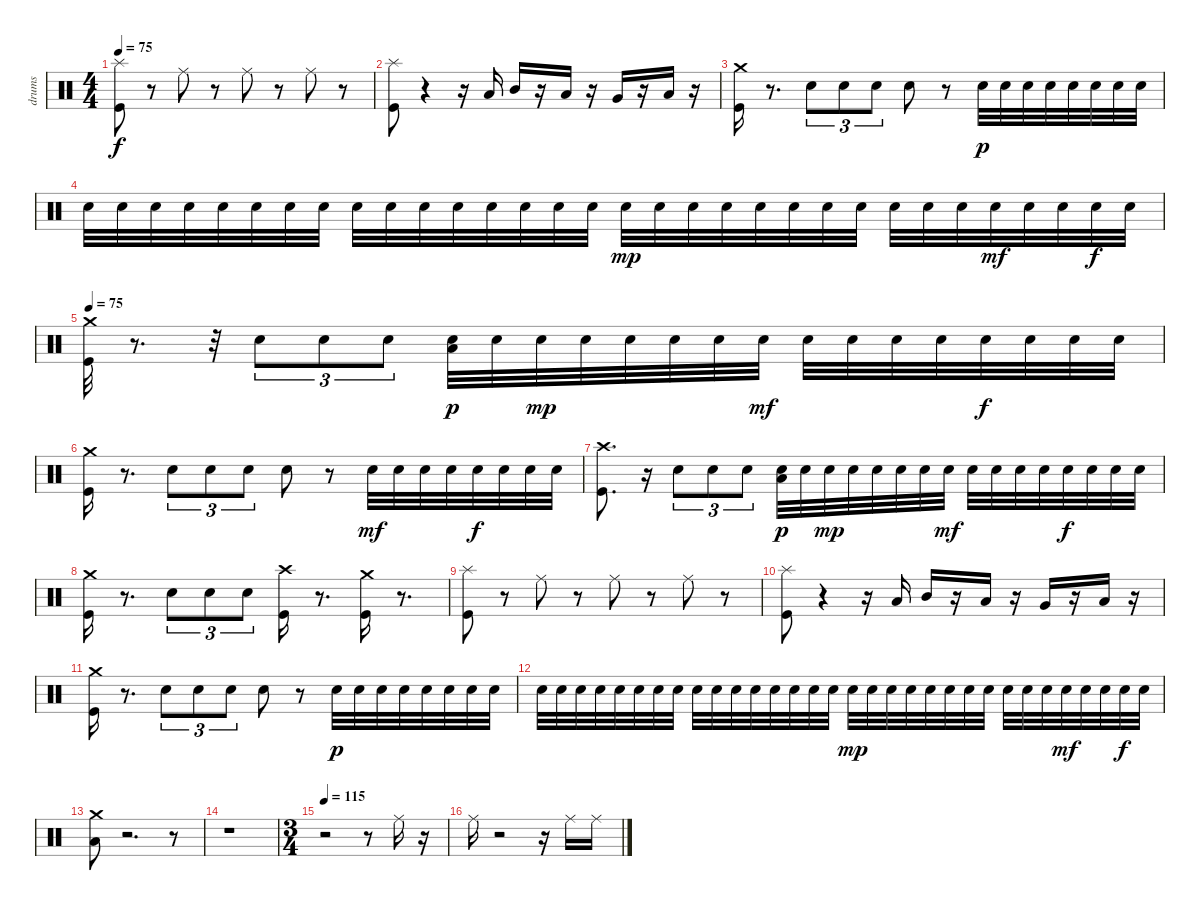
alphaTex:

\track ("drums" "drums") {instrument percussion}
\staff {score}
\articulation defaults
\ts (4 4)
\tempo 75
\clef neutral
\ks c
("Kick (hit)" "Splash (hit)").8{dy f} r.8 "Ride (middle)".8 r.8 "Ride (middle)".8 r.8 "Ride (middle)".8 r.8 |
("Splash (hit)" "Kick (hit)").8 r.4 r.16 "Low Tom (hit)".16 "Mid Tom (hit)".16 r.16 "Low Tom (hit)".16 r.16 "Very Low Tom (hit)".16 r.16 "Low Floor Tom (hit)".16 r.16 |
("Crash medium (hit)" "Kick (hit)").16 r.8{d} "Snare (hit) 2".8{tu (3 2)} "Snare (hit) 2".8{tu (3 2)} "Electric Snare (hit)".8{tu (3 2)} "Snare (hit) 2".8 r.8 "Electric Snare (hit)".32{dy p} "Electric Snare (hit)".32 "Electric Snare (hit)".32 "Electric Snare (hit)".32 "Electric Snare (hit)".32 "Electric Snare (hit)".32 "Electric Snare (hit)".32 "Electric Snare (hit)".32 |
"Electric Snare (hit)".32 "Electric Snare (hit)".32 "Electric Snare (hit)".32 "Electric Snare (hit)".32 "Electric Snare (hit)".32 "Electric Snare (hit)".32 "Electric Snare (hit)".32 "Electric Snare (hit)".32 "Electric Snare (hit)".32 "Electric Snare (hit)".32 "Electric Snare (hit)".32 "Electric Snare (hit)".32 "Electric Snare (hit)".32 "Electric Snare (hit)".32 "Electric Snare (hit)".32 "Electric Snare (hit)".32 "Electric Snare (hit)".32{dy mp} "Electric Snare (hit)".32 "Electric Snare (hit)".32 "Electric Snare (hit)".32 "Electric Snare (hit)".32 "Electric Snare (hit)".32 "Electric Snare (hit)".32 "Electric Snare (hit)".32 "Electric Snare (hit)".32 "Electric Snare (hit)".32 "Electric Snare (hit)".32 "Electric Snare (hit)".32{dy mf} "Electric Snare (hit)".32 "Electric Snare (hit)".32 "Electric Snare (hit)".32{dy f} "Electric Snare (hit)".32 |
\tempo 75
("Crash medium (hit)" "Kick (hit)").32 r.8{d} r.32 "Electric Snare (hit)".8{tu (3 2)} "Electric Snare (hit)".8{tu (3 2)} "Electric Snare (hit)".8{tu (3 2)} ("Low Floor Tom (hit)" "Electric Snare (hit)").32{dy p} "Electric Snare (hit)".32 "Electric Snare (hit)".32{dy mp} "Electric Snare (hit)".32 "Electric Snare (hit)".32 "Electric Snare (hit)".32 "Electric Snare (hit)".32 "Electric Snare (hit)".32{dy mf} "Electric Snare (hit)".32 "Electric Snare (hit)".32 "Electric Snare (hit)".32 "Electric Snare (hit)".32 "Electric Snare (hit)".32{dy f} "Electric Snare (hit)".32 "Electric Snare (hit)".32 "Electric Snare (hit)".32 |
("Crash medium (hit)" "Kick (hit)").16 r.8{d} "Snare (hit) 2".8{tu (3 2)} "Snare (hit) 2".8{tu (3 2)} "Snare (hit) 2".8{tu (3 2)} "Snare (hit) 2".8 r.8 "Electric Snare (hit)".32{dy mf} "Electric Snare (hit)".32 "Electric Snare (hit)".32 "Electric Snare (hit)".32 "Electric Snare (hit)".32{dy f} "Electric Snare (hit)".32 "Electric Snare (hit)".32 "Electric Snare (hit)".32 |
("Crash high (hit)" "Kick (hit)").8{d} r.16 "Electric Snare (hit)".8{tu (3 2)} "Electric Snare (hit)".8{tu (3 2)} "Electric Snare (hit)".8{tu (3 2)} ("Low Floor Tom (hit)" "Electric Snare (hit)").32{dy p} "Electric Snare (hit)".32 "Electric Snare (hit)".32{dy mp} "Electric Snare (hit)".32 "Electric Snare (hit)".32 "Electric Snare (hit)".32 "Electric Snare (hit)".32 "Electric Snare (hit)".32{dy mf} "Electric Snare (hit)".32 "Electric Snare (hit)".32 "Electric Snare (hit)".32 "Electric Snare (hit)".32 "Electric Snare (hit)".32{dy f} "Electric Snare (hit)".32 "Electric Snare (hit)".32 "Electric Snare (hit)".32 |
("Crash medium (hit)" "Kick (hit)").16 r.8{d} "Snare (hit) 2".8{tu (3 2)} "Snare (hit) 2".8{tu (3 2)} "Snare (hit) 2".8{tu (3 2)} ("Crash high (hit)" "Kick (hit)").16 r.8{d} ("Crash medium (hit)" "Kick (hit)").16 r.8{d} |
("Kick (hit)" "Splash (hit)").8 r.8 "Ride (middle)".8 r.8 "Ride (middle)".8 r.8 "Ride (middle)".8 r.8 |
("Splash (hit)" "Kick (hit)").8 r.4 r.16 "Low Tom (hit)".16 "Mid Tom (hit)".16 r.16 "Low Tom (hit)".16 r.16 "Very Low Tom (hit)".16 r.16 "Low Floor Tom (hit)".16 r.16 |
("Crash medium (hit)" "Kick (hit)").16 r.8{d} "Snare (hit) 2".8{tu (3 2)} "Snare (hit) 2".8{tu (3 2)} "Electric Snare (hit)".8{tu (3 2)} "Snare (hit) 2".8 r.8 "Electric Snare (hit)".32{dy p} "Electric Snare (hit)".32 "Electric Snare (hit)".32 "Electric Snare (hit)".32 "Electric Snare (hit)".32 "Electric Snare (hit)".32 "Electric Snare (hit)".32 "Electric Snare (hit)".32 |
"Electric Snare (hit)".32 "Electric Snare (hit)".32 "Electric Snare (hit)".32 "Electric Snare (hit)".32 "Electric Snare (hit)".32 "Electric Snare (hit)".32 "Electric Snare (hit)".32 "Electric Snare (hit)".32 "Electric Snare (hit)".32 "Electric Snare (hit)".32 "Electric Snare (hit)".32 "Electric Snare (hit)".32 "Electric Snare (hit)".32 "Electric Snare (hit)".32 "Electric Snare (hit)".32 "Electric Snare (hit)".32 "Electric Snare (hit)".32{dy mp} "Electric Snare (hit)".32 "Electric Snare (hit)".32 "Electric Snare (hit)".32 "Electric Snare (hit)".32 "Electric Snare (hit)".32 "Electric Snare (hit)".32 "Electric Snare (hit)".32 "Electric Snare (hit)".32 "Electric Snare (hit)".32 "Electric Snare (hit)".32 "Electric Snare (hit)".32{dy mf} "Electric Snare (hit)".32 "Electric Snare (hit)".32 "Electric Snare (hit)".32{dy f} "Electric Snare (hit)".32 |
("Crash medium (hit)" "Low Floor Tom (hit)").8 r.2{d} r.8 |
r.1 |
\ts (3 4)
\tempo 115
r.2 r.8 "Ride (middle)".16 r.16 |
"Ride (middle)".16 r.2 r.16 "Ride (middle)".16 "Ride (middle)".16
